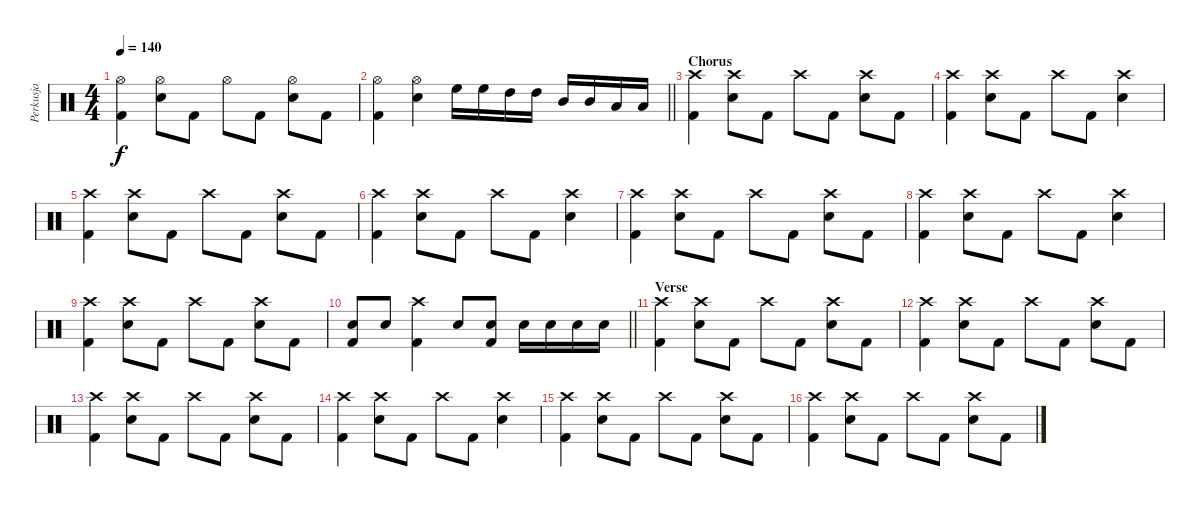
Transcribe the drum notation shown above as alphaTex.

\track ("Perkusja" "Perkusja") {instrument percussion}
\staff {score}
\articulation defaults
\ts (4 4)
\tempo 140
\clef neutral
\ks c
("Hi-Hat (open)" "Kick (hit) 2").4{dy f} ("Hi-Hat (open)" "Snare (hit) 2").8 "Kick (hit) 2".8 "Hi-Hat (open)".8 "Kick (hit) 2".8 ("Hi-Hat (open)" "Snare (hit) 2").8 "Kick (hit) 2".8 |
\barLineRight lightlight
("Hi-Hat (open)" "Kick (hit) 2").4 ("Hi-Hat (open)" "Snare (hit) 2").4 "High Floor Tom (hit)".16 "High Floor Tom (hit)".16 "High Tom (hit)".16 "High Tom (hit)".16 "Mid Tom (hit)".16 "Mid Tom (hit)".16 "Low Tom (hit)".16 "Low Tom (hit)".16 |
\section ("" "Chorus")
("Crash high (hit)" "Kick (hit) 2").4 ("Crash high (hit)" "Snare (hit) 2").8 "Kick (hit) 2".8 "Crash high (hit)".8 "Kick (hit) 2".8 ("Crash high (hit)" "Snare (hit) 2").8 "Kick (hit) 2".8 |
("Crash high (hit)" "Kick (hit) 2").4 ("Crash high (hit)" "Snare (hit) 2").8 "Kick (hit) 2".8 "Crash high (hit)".8 "Kick (hit) 2".8 ("Crash high (hit)" "Snare (hit) 2").4 |
("Crash high (hit)" "Kick (hit) 2").4 ("Crash high (hit)" "Snare (hit) 2").8 "Kick (hit) 2".8 "Crash high (hit)".8 "Kick (hit) 2".8 ("Crash high (hit)" "Snare (hit) 2").8 "Kick (hit) 2".8 |
("Crash high (hit)" "Kick (hit) 2").4 ("Crash high (hit)" "Snare (hit) 2").8 "Kick (hit) 2".8 "Crash high (hit)".8 "Kick (hit) 2".8 ("Crash high (hit)" "Snare (hit) 2").4 |
("Crash high (hit)" "Kick (hit) 2").4 ("Crash high (hit)" "Snare (hit) 2").8 "Kick (hit) 2".8 "Crash high (hit)".8 "Kick (hit) 2".8 ("Crash high (hit)" "Snare (hit) 2").8 "Kick (hit) 2".8 |
("Crash high (hit)" "Kick (hit) 2").4 ("Crash high (hit)" "Snare (hit) 2").8 "Kick (hit) 2".8 "Crash high (hit)".8 "Kick (hit) 2".8 ("Crash high (hit)" "Snare (hit) 2").4 |
("Crash high (hit)" "Kick (hit) 2").4 ("Crash high (hit)" "Snare (hit) 2").8 "Kick (hit) 2".8 "Crash high (hit)".8 "Kick (hit) 2".8 ("Crash high (hit)" "Snare (hit) 2").8 "Kick (hit) 2".8 |
\barLineRight lightlight
("Snare (hit) 2" "Kick (hit) 2").8 "Snare (hit) 2".8 ("Crash high (hit)" "Kick (hit) 2").4 "Snare (hit) 2".8 ("Snare (hit) 2" "Kick (hit) 2").8 "Snare (hit) 2".16 "Snare (hit) 2".16 "Snare (hit) 2".16 "Snare (hit) 2".16 |
\section ("" "Verse")
("Crash high (hit)" "Kick (hit) 2").4 ("Crash high (hit)" "Snare (hit) 2").8 "Kick (hit) 2".8 "Crash high (hit)".8 "Kick (hit) 2".8 ("Crash high (hit)" "Snare (hit) 2").8 "Kick (hit) 2".8 |
("Crash high (hit)" "Kick (hit) 2").4 ("Crash high (hit)" "Snare (hit) 2").8 "Kick (hit) 2".8 "Crash high (hit)".8 "Kick (hit) 2".8 ("Crash high (hit)" "Snare (hit) 2").8 "Kick (hit) 2".8 |
("Crash high (hit)" "Kick (hit) 2").4 ("Crash high (hit)" "Snare (hit) 2").8 "Kick (hit) 2".8 "Crash high (hit)".8 "Kick (hit) 2".8 ("Crash high (hit)" "Snare (hit) 2").8 "Kick (hit) 2".8 |
("Crash high (hit)" "Kick (hit) 2").4 ("Crash high (hit)" "Snare (hit) 2").8 "Kick (hit) 2".8 "Crash high (hit)".8 "Kick (hit) 2".8 ("Crash high (hit)" "Snare (hit) 2").4 |
("Crash high (hit)" "Kick (hit) 2").4 ("Crash high (hit)" "Snare (hit) 2").8 "Kick (hit) 2".8 "Crash high (hit)".8 "Kick (hit) 2".8 ("Crash high (hit)" "Snare (hit) 2").8 "Kick (hit) 2".8 |
("Crash high (hit)" "Kick (hit) 2").4 ("Crash high (hit)" "Snare (hit) 2").8 "Kick (hit) 2".8 "Crash high (hit)".8 "Kick (hit) 2".8 ("Crash high (hit)" "Snare (hit) 2").8 "Kick (hit) 2".8
